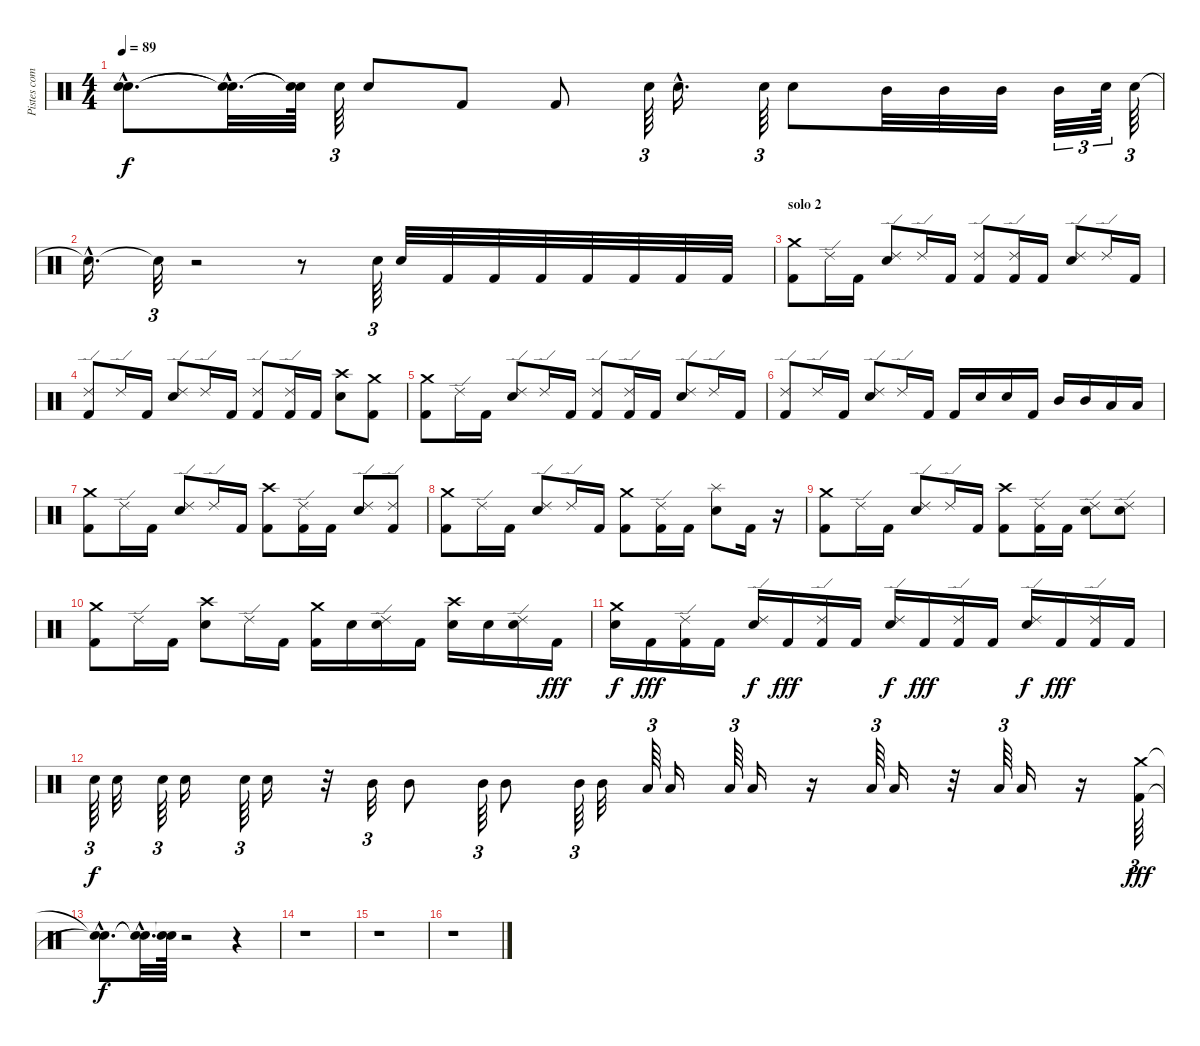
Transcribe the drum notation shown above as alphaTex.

\track ("Pistes combinées" "Pistes com") {instrument percussion}
\staff {score}
\articulation defaults
\ts (4 4)
\tempo 89
\clef neutral
\ks c
("Snare (hit)"{hac t} "Snare (hit)"{hac t}).8{d dy f} ("Snare (hit)"{hac t} "Snare (hit)"{hac t}).32{d} ("Snare (hit)"{t} "Snare (hit)"{t}).64 "Electric Snare (hit)".64{tu (3 2)} "Electric Snare (hit)".8 "Kick (hit) 2".8 "Kick (hit) 2".8 "Electric Snare (hit)".64{tu (3 2)} "Electric Snare (hit)"{hac}.16{d} "Electric Snare (hit)".64{tu (3 2)} "Electric Snare (hit)".8 "Mid Tom (hit)".32 "Mid Tom (hit)".32 "Mid Tom (hit)".32 "Mid Tom (hit)".32{tu (3 2)} "Electric Snare (hit)".64{tu (3 2)} "Electric Snare (hit)".64{tu (3 2)} |
"Snare (hit)"{hac t}.16{d} "Snare (hit)"{t}.32{tu (3 2)} r.2 r.8 "Electric Snare (hit)".64{tu (3 2)} "Electric Snare (hit)".32 "Kick (hit) 2".32 "Kick (hit) 2".32 "Kick (hit) 2".32 "Kick (hit) 2".32 "Kick (hit) 2".32 "Kick (hit) 2".32 "Kick (hit) 2".32 |
\section ("" "solo 2")
("Crash medium (hit)" "Kick (hit) 2").8 "Ride (edge) 2".16 "Kick (hit) 2".16 ("Ride (edge) 2" "Electric Snare (hit)").8 "Ride (edge) 2".16 "Kick (hit) 2".16 ("Ride (edge) 2" "Kick (hit) 2").8 ("Ride (edge) 2" "Kick (hit) 2").16 "Kick (hit) 2".16 ("Ride (edge) 2" "Electric Snare (hit)").8 "Ride (edge) 2".16 "Kick (hit) 2".16 |
("Ride (edge) 2" "Kick (hit) 2").8 "Ride (edge) 2".16 "Kick (hit) 2".16 ("Ride (edge) 2" "Electric Snare (hit)").8 "Ride (edge) 2".16 "Kick (hit) 2".16 ("Ride (edge) 2" "Kick (hit) 2").8 ("Ride (edge) 2" "Kick (hit) 2").16 "Kick (hit) 2".16 ("Crash high (hit)" "Electric Snare (hit)").8 ("Crash medium (hit)" "Kick (hit) 2").8 |
("Crash medium (hit)" "Kick (hit) 2").8 "Ride (edge) 2".16 "Kick (hit) 2".16 ("Ride (edge) 2" "Electric Snare (hit)").8 "Ride (edge) 2".16 "Kick (hit) 2".16 ("Ride (edge) 2" "Kick (hit) 2").8 ("Ride (edge) 2" "Kick (hit) 2").16 "Kick (hit) 2".16 ("Ride (edge) 2" "Electric Snare (hit)").8 "Ride (edge) 2".16 "Kick (hit) 2".16 |
("Ride (edge) 2" "Kick (hit) 2").8 "Ride (edge) 2".16 "Kick (hit) 2".16 ("Ride (edge) 2" "Electric Snare (hit)").8 "Ride (edge) 2".16 "Kick (hit) 2".16 "Kick (hit) 2".16 "Electric Snare (hit)".16 "Electric Snare (hit)".16 "Kick (hit) 2".16 "Mid Tom (hit)".16 "Mid Tom (hit)".16 "Low Tom (hit)".16 "Low Tom (hit)".16 |
("Crash medium (hit)" "Kick (hit) 2").8 "Ride (edge) 2".16 "Kick (hit) 2".16 ("Ride (edge) 2" "Electric Snare (hit)").8 "Ride (edge) 2".16 "Kick (hit) 2".16 ("Crash high (hit)" "Kick (hit) 2").8 ("Ride (edge) 2" "Kick (hit) 2").16 "Kick (hit) 2".16 ("Ride (edge) 2" "Electric Snare (hit)").8 ("Ride (edge) 2" "Kick (hit) 2").8 |
("Crash medium (hit)" "Kick (hit) 2").8 "Ride (edge) 2".16 "Kick (hit) 2".16 ("Ride (edge) 2" "Electric Snare (hit)").8 "Ride (edge) 2".16 "Kick (hit) 2".16 ("Crash medium (hit)" "Kick (hit) 2").8 ("Ride (edge) 2" "Kick (hit) 2").16 "Kick (hit) 2".16 ("Splash (hit)" "Electric Snare (hit)").8 "Kick (hit) 2".16 r.16 |
("Crash medium (hit)" "Kick (hit) 2").8 "Ride (edge) 2".16 "Kick (hit) 2".16 ("Ride (edge) 2" "Electric Snare (hit)").8 "Ride (edge) 2".16 "Kick (hit) 2".16 ("Crash high (hit)" "Kick (hit) 2").8 ("Ride (edge) 2" "Kick (hit) 2").16 "Kick (hit) 2".16 ("Ride (edge) 2" "Electric Snare (hit)").8 ("Ride (edge) 2" "Electric Snare (hit)").8 |
("Crash medium (hit)" "Kick (hit) 2").8 "Ride (edge) 2".16 "Kick (hit) 2".16 ("Crash high (hit)" "Electric Snare (hit)").8 "Ride (edge) 2".16 "Kick (hit) 2".16 ("Crash medium (hit)" "Kick (hit) 2").16 "Electric Snare (hit)".16 ("Ride (edge) 2" "Electric Snare (hit)").16 "Kick (hit) 2".16 ("Crash high (hit)" "Electric Snare (hit)").16 "Electric Snare (hit)".16 ("Ride (edge) 2" "Electric Snare (hit)").16 "Kick (hit) 2".16{dy fff} |
("Crash medium (hit)" "Electric Snare (hit)").16{dy f} "Kick (hit) 2".16{dy fff} ("Ride (edge) 2" "Kick (hit) 2").16 "Kick (hit) 2".16 ("Ride (edge) 2" "Electric Snare (hit)").16{dy f} "Kick (hit) 2".16{dy fff} ("Ride (edge) 2" "Kick (hit) 2").16 "Kick (hit) 2".16 ("Ride (edge) 2" "Electric Snare (hit)").16{dy f} "Kick (hit) 2".16{dy fff} ("Ride (edge) 2" "Kick (hit) 2").16 "Kick (hit) 2".16 ("Ride (edge) 2" "Electric Snare (hit)").16{dy f} "Kick (hit) 2".16{dy fff} ("Ride (edge) 2" "Kick (hit) 2").16 "Kick (hit) 2".16 |
"Electric Snare (hit)".64{tu (3 2) dy f} "Electric Snare (hit)".32 "Electric Snare (hit)".64{tu (3 2)} "Electric Snare (hit)".16 "Electric Snare (hit)".64{tu (3 2)} "Electric Snare (hit)".16 r.32 "Mid Tom (hit)".32{tu (3 2)} "Mid Tom (hit)".8 "Mid Tom (hit)".64{tu (3 2)} "Mid Tom (hit)".8 "Mid Tom (hit)".64{tu (3 2)} "Mid Tom (hit)".32 "Low Tom (hit)".64{tu (3 2)} "Low Tom (hit)".16 "Low Tom (hit)".64{tu (3 2)} "Low Tom (hit)".16 r.16 "Low Tom (hit)".64{tu (3 2)} "Low Tom (hit)".16 r.32 "Low Tom (hit)".64{tu (3 2)} "Low Tom (hit)".16 r.16 ("Crash medium (hit)" "Kick (hit) 2").64{tu (3 2) dy fff} |
("Snare (hit)"{hac t} "Snare (hit)"{hac t}).8{d dy f} ("Snare (hit)"{hac t} "Snare (hit)"{hac t}).32{d} ("Snare (hit)"{t} "Snare (hit)"{t}).64 r.2 r.4 |
r.1 |
r.1 |
r.1
